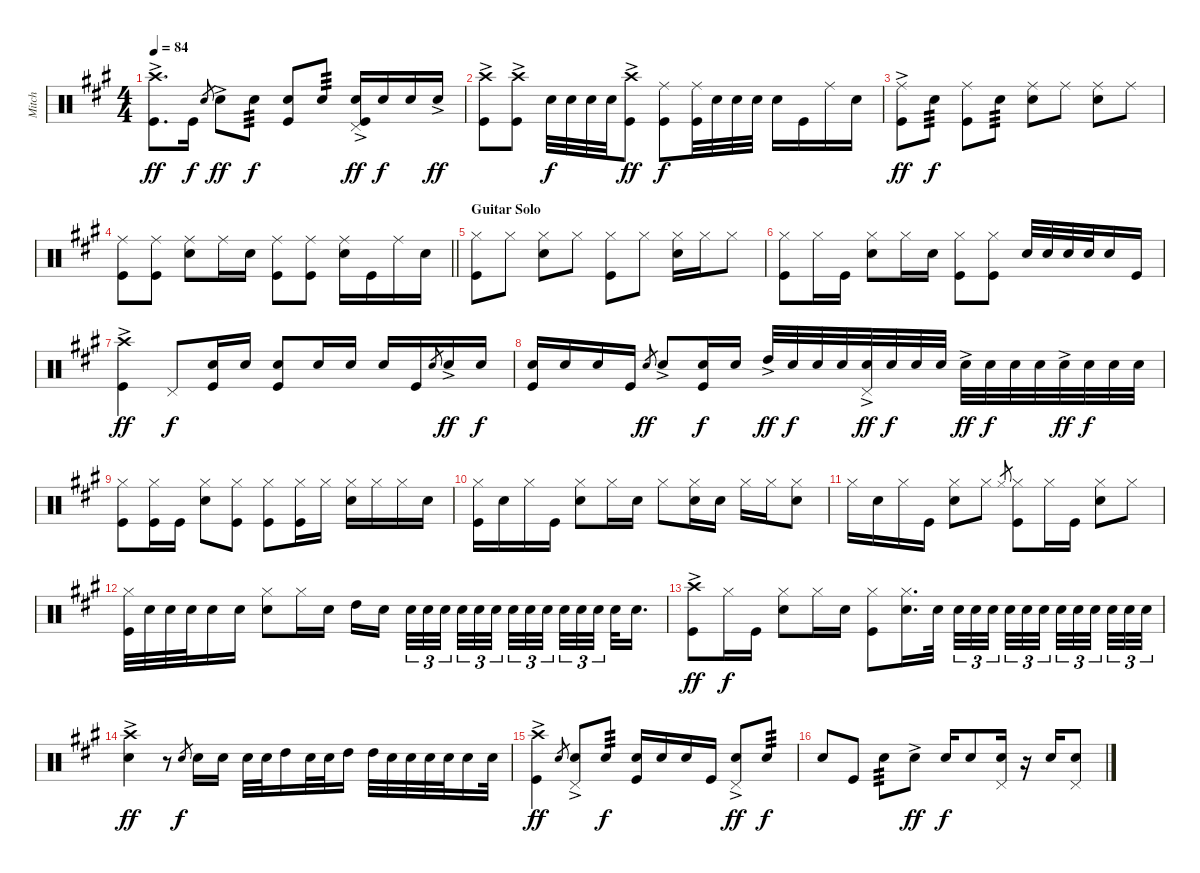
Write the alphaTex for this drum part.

\track ("Mitch" "Mitch") {instrument percussion}
\staff {score}
\articulation defaults
\ts (4 4)
\tempo 84
\clef neutral
\ks a
("Crash high (hit)"{ac} "Kick (hit)").8{d dy ff} "Kick (hit)".16{dy f} "Snare (hit) 2".8{gr} "Snare (hit) 2"{ac}.8{dy ff} "Snare (hit) 2".8{tp 3 dy f} ("Snare (hit) 2" "Kick (hit)").8 "Snare (hit) 2".8{tp 3} ("Snare (hit) 2"{ac} "Kick (hit)" "Pedal Hi-Hat (hit)").16{dy ff} "Snare (hit) 2".16{dy f} "Snare (hit) 2".16 "Snare (hit) 2"{ac}.16{dy ff} |
("Crash high (hit)"{ac} "Kick (hit)").8 ("Crash high (hit)"{ac} "Kick (hit)").8 "Snare (hit) 2".32{dy f} "Snare (hit) 2".32 "Snare (hit) 2".32 "Snare (hit) 2".32 ("Crash high (hit)"{ac} "Kick (hit)").8{dy ff} ("Ride (middle)" "Kick (hit)").8{dy f} ("Ride (middle)" "Kick (hit)").32 "Snare (hit) 2".32 "Snare (hit) 2".32 "Snare (hit) 2".32 "Snare (hit) 2".16 "Kick (hit)".16 "Ride (middle)".16 "Snare (hit) 2".16 |
("Ride (middle)"{ac} "Kick (hit)").8{dy ff} "Snare (hit) 2".8{tp 3 dy f} ("Ride (middle)" "Kick (hit)").8 "Snare (hit) 2".8{tp 3} ("Ride (middle)" "Snare (hit) 2").8 "Ride (middle)".8 ("Ride (middle)" "Snare (hit) 2").8 "Ride (middle)".8 |
\barLineRight lightlight
("Ride (middle)" "Kick (hit)").8 ("Ride (middle)" "Kick (hit)").8 ("Ride (middle)" "Snare (hit) 2").8 "Ride (middle)".16 "Snare (hit) 2".16 ("Ride (middle)" "Kick (hit)").8 ("Ride (middle)" "Kick (hit)").8 ("Ride (middle)" "Snare (hit) 2").16 "Kick (hit)".16 "Ride (middle)".16 "Snare (hit) 2".16 |
\section ("" "Guitar Solo")
("Hi-Hat (closed)" "Kick (hit)").8 "Hi-Hat (closed)".8 ("Hi-Hat (closed)" "Snare (hit) 2").8 "Hi-Hat (closed)".8 ("Hi-Hat (closed)" "Kick (hit)").8 "Hi-Hat (closed)".8 ("Hi-Hat (closed)" "Snare (hit) 2").16 "Hi-Hat (closed)".16 "Hi-Hat (closed)".8 |
("Hi-Hat (closed)" "Kick (hit)").8 "Hi-Hat (closed)".16 "Kick (hit)".16 ("Hi-Hat (closed)" "Snare (hit) 2").8 "Hi-Hat (closed)".16 "Snare (hit) 2".16 ("Hi-Hat (closed)" "Kick (hit)").8 ("Hi-Hat (closed)" "Kick (hit)").8 "Snare (hit) 2".32 "Snare (hit) 2".32 "Snare (hit) 2".32 "Snare (hit) 2".32 "Snare (hit) 2".16 "Kick (hit)".16 |
("Crash high (hit)"{ac} "Kick (hit)").4{dy ff} "Pedal Hi-Hat (hit)".8{dy f} ("Snare (hit) 2" "Kick (hit)").16 "Snare (hit) 2".16 ("Snare (hit) 2" "Kick (hit)").8 "Snare (hit) 2".16 "Snare (hit) 2".16 "Snare (hit) 2".16 "Kick (hit)".16 "Snare (hit) 2".8{gr} "Snare (hit) 2"{ac}.16{dy ff} "Snare (hit) 2".16{dy f} |
("Snare (hit) 2" "Kick (hit)").16 "Snare (hit) 2".16 "Snare (hit) 2".16 "Kick (hit)".16 "Snare (hit) 2".8{gr dy ff} "Snare (hit) 2"{ac}.8 ("Snare (hit) 2" "Kick (hit)").16{dy f} "Snare (hit) 2".16 "High Tom (hit)"{ac}.32{dy ff} "Snare (hit) 2".32{dy f} "Snare (hit) 2".32 "Snare (hit) 2".32 ("Snare (hit) 2"{ac} "Pedal Hi-Hat (hit)").32{dy ff} "Snare (hit) 2".32{dy f} "Snare (hit) 2".32 "Snare (hit) 2".32 "Snare (hit) 2"{ac}.32{dy ff} "Snare (hit) 2".32{dy f} "Snare (hit) 2".32 "Snare (hit) 2".32 "Snare (hit) 2"{ac}.32{dy ff} "Snare (hit) 2".32{dy f} "Snare (hit) 2".32 "Snare (hit) 2".32 |
("Hi-Hat (closed)" "Kick (hit)").8 ("Hi-Hat (closed)" "Kick (hit)").16 "Kick (hit)".16 ("Hi-Hat (closed)" "Snare (hit) 2").8 ("Hi-Hat (closed)" "Kick (hit)").8 ("Hi-Hat (closed)" "Kick (hit)").8 ("Hi-Hat (closed)" "Kick (hit)").16 "Hi-Hat (closed)".16 ("Hi-Hat (closed)" "Snare (hit) 2").16 "Hi-Hat (closed)".16 "Hi-Hat (closed)".16 "Snare (hit) 2".16 |
("Hi-Hat (closed)" "Kick (hit)").16 "Snare (hit) 2".16 "Hi-Hat (closed)".16 "Kick (hit)".16 ("Hi-Hat (closed)" "Snare (hit) 2").8 "Hi-Hat (closed)".16 "Snare (hit) 2".16 "Hi-Hat (closed)".8 ("Hi-Hat (closed)" "Snare (hit) 2").16 "Snare (hit) 2".16 "Hi-Hat (closed)".16 "Hi-Hat (closed)".16 ("Hi-Hat (closed)" "Snare (hit) 2").8 |
"Hi-Hat (closed)".16 "Snare (hit) 2".16 "Hi-Hat (closed)".16 "Kick (hit)".16 ("Hi-Hat (closed)" "Snare (hit) 2").8 "Hi-Hat (closed)".8 "Hi-Hat (closed)".8{gr} ("Hi-Hat (closed)" "Kick (hit)").8 "Hi-Hat (closed)".16 "Kick (hit)".16 ("Hi-Hat (closed)" "Snare (hit) 2").8 "Hi-Hat (closed)".8 |
("Hi-Hat (closed)" "Kick (hit)").32 "Snare (hit) 2".32 "Snare (hit) 2".32 "Snare (hit) 2".32 "Snare (hit) 2".16 "Snare (hit) 2".16 ("Hi-Hat (closed)" "Snare (hit) 2").8 "Hi-Hat (closed)".16 "Snare (hit) 2".16 "High Tom (hit)".16 "Snare (hit) 2".16{beam splitsecondary} "Snare (hit) 2".32{tu (3 2)} "Snare (hit) 2".32{tu (3 2)} "Snare (hit) 2".32{tu (3 2) beam splitsecondary} "Snare (hit) 2".32{tu (3 2)} "Snare (hit) 2".32{tu (3 2)} "Snare (hit) 2".32{tu (3 2)} "Snare (hit) 2".32{tu (3 2)} "Snare (hit) 2".32{tu (3 2)} "Snare (hit) 2".32{tu (3 2) beam splitsecondary} "Snare (hit) 2".32{tu (3 2)} "Snare (hit) 2".32{tu (3 2)} "Snare (hit) 2".32{tu (3 2) beam splitsecondary} "Snare (hit) 2".32 "Snare (hit) 2".16{d} |
("Crash high (hit)"{ac} "Kick (hit)").8{dy ff} "Hi-Hat (closed)".16{dy f} "Kick (hit)".16 ("Hi-Hat (closed)" "Snare (hit) 2").8 "Hi-Hat (closed)".16 "Snare (hit) 2".16 ("Hi-Hat (closed)" "Kick (hit)").8 ("Hi-Hat (closed)" "Snare (hit) 2").16{d} "Snare (hit) 2".32 "Snare (hit) 2".32{tu (3 2)} "Snare (hit) 2".32{tu (3 2)} "Snare (hit) 2".32{tu (3 2) beam splitsecondary} "Snare (hit) 2".32{tu (3 2)} "Snare (hit) 2".32{tu (3 2)} "Snare (hit) 2".32{tu (3 2) beam splitsecondary} "Snare (hit) 2".32{tu (3 2)} "Snare (hit) 2".32{tu (3 2)} "Snare (hit) 2".32{tu (3 2) beam splitsecondary} "Snare (hit) 2".32{tu (3 2)} "Snare (hit) 2".32{tu (3 2)} "Snare (hit) 2".32{tu (3 2)} |
("Crash high (hit)"{ac} "Snare (hit) 2").4{dy ff} r.8 "Snare (hit) 2".8{gr dy f} "Snare (hit) 2".16 "Snare (hit) 2".16 "Snare (hit) 2".32 "Snare (hit) 2".32 "High Tom (hit)".16 "Snare (hit) 2".32 "Snare (hit) 2".32 "High Tom (hit)".16 "High Tom (hit)".32 "Snare (hit) 2".32 "Snare (hit) 2".32 "Snare (hit) 2".32 "Snare (hit) 2".32 "Snare (hit) 2".16 "Snare (hit) 2".32 |
("Crash high (hit)"{ac} "Kick (hit)").4{dy ff} "Snare (hit) 2".8{gr} ("Snare (hit) 2"{ac} "Pedal Hi-Hat (hit)").8 "Snare (hit) 2".8{tp 3 dy f} ("Snare (hit) 2" "Kick (hit)").16 "Snare (hit) 2".16 "Snare (hit) 2".16 "Kick (hit)".16 ("Snare (hit) 2"{ac} "Pedal Hi-Hat (hit)").8{dy ff} "Snare (hit) 2".8{tp 3 dy f} |
"Snare (hit) 2".8 "Kick (hit)".8 "Snare (hit) 2".8{tp 3} "Snare (hit) 2"{ac}.8{dy ff} "Snare (hit) 2".16{dy f} "Snare (hit) 2".8 ("Snare (hit) 2" "Pedal Hi-Hat (hit)").16 r.16 "Snare (hit) 2".16 ("Snare (hit) 2" "Pedal Hi-Hat (hit)").8
